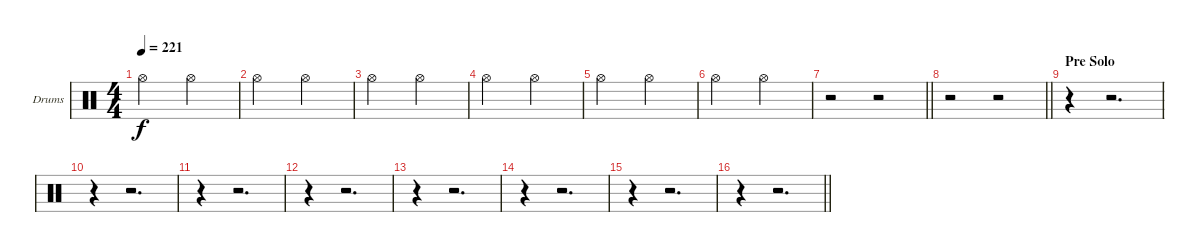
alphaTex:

\bracketExtendMode groupsimilarinstruments
\firstSystemTrackNameOrientation horizontal
\otherSystemsTrackNameOrientation horizontal
\track ("Drumkit" "Drums") {instrument percussion}
\staff {score}
\articulation defaults
\ts (4 4)
\tempo 221
\clef neutral
\ks c "Hi-Hat (open)".2{dy f} "Hi-Hat (open)".2
|
"Hi-Hat (open)".2 "Hi-Hat (open)".2 |
"Hi-Hat (open)".2 "Hi-Hat (open)".2 |
"Hi-Hat (open)".2 "Hi-Hat (open)".2 |
"Hi-Hat (open)".2 "Hi-Hat (open)".2 |
"Hi-Hat (open)".2 "Hi-Hat (open)".2 |
\barLineRight lightlight
r.2 r.2 |
\barLineRight lightlight
r.2 r.2 |
\section ("" "Pre Solo")
r.4 r.2{d} |
r.4 r.2{d} |
r.4 r.2{d} |
r.4 r.2{d} |
r.4 r.2{d} |
r.4 r.2{d} |
r.4 r.2{d} |
\barLineRight lightlight
r.4 r.2{d}
